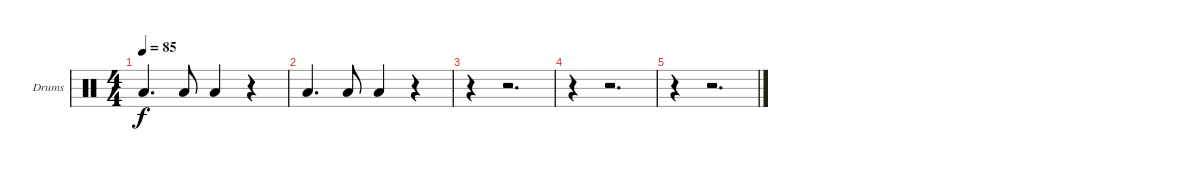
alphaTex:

\bracketExtendMode groupsimilarinstruments
\firstSystemTrackNameOrientation horizontal
\otherSystemsTrackNameOrientation horizontal
\track ("Drumkit" "Drums") {instrument percussion}
\staff {score}
\articulation defaults
\ts (4 4)
\tempo 85
\clef neutral
\ks c "Low Tom (hit)".4{d dy f} "Low Tom (hit)".8 "Low Tom (hit)".4
r.4 |
"Low Tom (hit)".4{d} "Low Tom (hit)".8 "Low Tom (hit)".4 r.4 |
r.4 r.2{d} |
r.4 r.2{d} |
r.4 r.2{d}
